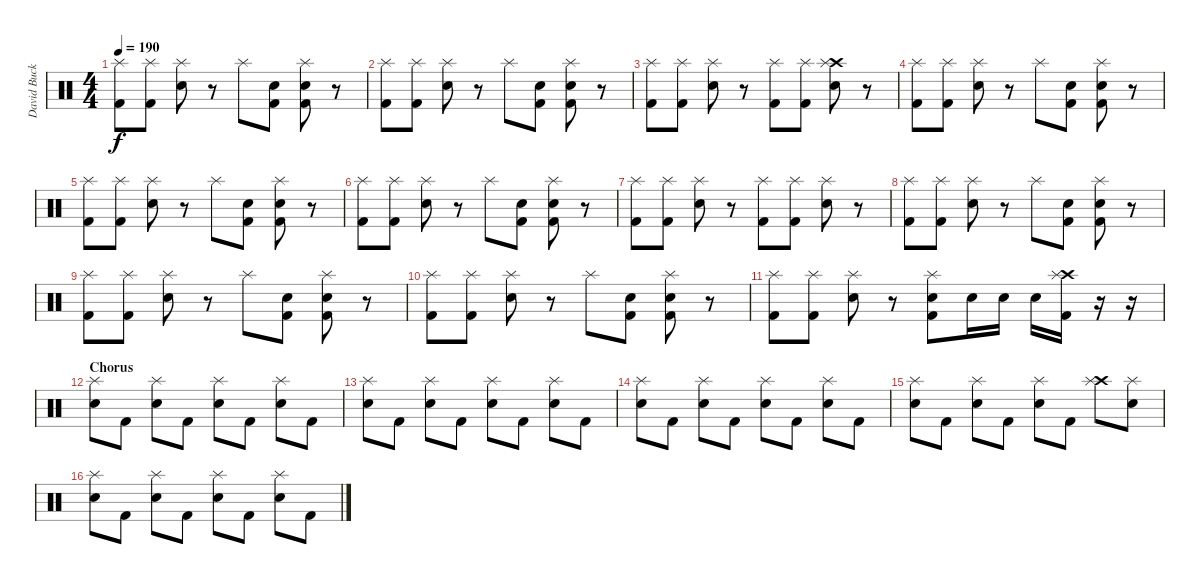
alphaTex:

\track ("David Buckner" "David Buck") {instrument percussion}
\staff {score}
\articulation defaults
\ts (4 4)
\tempo 190
\clef neutral
\ks c
("Splash (hit)" "Kick (hit) 2").8{dy f} ("Splash (hit)" "Kick (hit) 2").8 ("Splash (hit)" "Snare (hit) 2").8 r.8 "Splash (hit)".8 ("Snare (hit) 2" "Kick (hit) 2").8 ("Splash (hit)" "Snare (hit) 2" "Kick (hit) 2").8 r.8 |
("Splash (hit)" "Kick (hit) 2").8 ("Splash (hit)" "Kick (hit) 2").8 ("Splash (hit)" "Snare (hit) 2").8 r.8 "Splash (hit)".8 ("Snare (hit) 2" "Kick (hit) 2").8 ("Splash (hit)" "Snare (hit) 2" "Kick (hit) 2").8 r.8 |
("Splash (hit)" "Kick (hit) 2").8 ("Splash (hit)" "Kick (hit) 2").8 ("Splash (hit)" "Snare (hit) 2").8 r.8 ("Splash (hit)" "Kick (hit) 2").8 ("Splash (hit)" "Kick (hit) 2").8 ("Crash high (hit)" "Splash (hit)" "Snare (hit) 2").8 r.8 |
("Splash (hit)" "Kick (hit) 2").8 ("Splash (hit)" "Kick (hit) 2").8 ("Splash (hit)" "Snare (hit) 2").8 r.8 "Splash (hit)".8 ("Snare (hit) 2" "Kick (hit) 2").8 ("Splash (hit)" "Snare (hit) 2" "Kick (hit) 2").8 r.8 |
("Splash (hit)" "Kick (hit) 2").8 ("Splash (hit)" "Kick (hit) 2").8 ("Splash (hit)" "Snare (hit) 2").8 r.8 "Splash (hit)".8 ("Snare (hit) 2" "Kick (hit) 2").8 ("Splash (hit)" "Snare (hit) 2" "Kick (hit) 2").8 r.8 |
("Splash (hit)" "Kick (hit) 2").8 ("Splash (hit)" "Kick (hit) 2").8 ("Splash (hit)" "Snare (hit) 2").8 r.8 "Splash (hit)".8 ("Snare (hit) 2" "Kick (hit) 2").8 ("Splash (hit)" "Snare (hit) 2" "Kick (hit) 2").8 r.8 |
("Splash (hit)" "Kick (hit) 2").8 ("Splash (hit)" "Kick (hit) 2").8 ("Splash (hit)" "Snare (hit) 2").8 r.8 ("Splash (hit)" "Kick (hit) 2").8 ("Splash (hit)" "Kick (hit) 2").8 ("Splash (hit)" "Snare (hit) 2").8 r.8 |
("Splash (hit)" "Kick (hit) 2").8 ("Splash (hit)" "Kick (hit) 2").8 ("Splash (hit)" "Snare (hit) 2").8 r.8 "Splash (hit)".8 ("Snare (hit) 2" "Kick (hit) 2").8 ("Splash (hit)" "Snare (hit) 2" "Kick (hit) 2").8 r.8 |
("Splash (hit)" "Kick (hit) 2").8 ("Splash (hit)" "Kick (hit) 2").8 ("Splash (hit)" "Snare (hit) 2").8 r.8 "Splash (hit)".8 ("Snare (hit) 2" "Kick (hit) 2").8 ("Splash (hit)" "Snare (hit) 2" "Kick (hit) 2").8 r.8 |
("Splash (hit)" "Kick (hit) 2").8 ("Splash (hit)" "Kick (hit) 2").8 ("Splash (hit)" "Snare (hit) 2").8 r.8 "Splash (hit)".8 ("Snare (hit) 2" "Kick (hit) 2").8 ("Splash (hit)" "Snare (hit) 2" "Kick (hit) 2").8 r.8 |
("Splash (hit)" "Kick (hit) 2").8 ("Splash (hit)" "Kick (hit) 2").8 ("Splash (hit)" "Snare (hit) 2").8 r.8 ("Splash (hit)" "Snare (hit) 2" "Kick (hit) 2").8 "Snare (hit) 2".16 "Snare (hit) 2".16 "Snare (hit) 2".16 ("Crash high (hit)" "Splash (hit)" "Kick (hit) 2").16 r.16 r.16 |
\section ("" "Chorus")
("Splash (hit)" "Snare (hit) 2").8 "Kick (hit) 2".8 ("Splash (hit)" "Snare (hit) 2").8 "Kick (hit) 2".8 ("Splash (hit)" "Snare (hit) 2").8 "Kick (hit) 2".8 ("Splash (hit)" "Snare (hit) 2").8 "Kick (hit) 2".8 |
("Splash (hit)" "Snare (hit) 2").8 "Kick (hit) 2".8 ("Splash (hit)" "Snare (hit) 2").8 "Kick (hit) 2".8 ("Splash (hit)" "Snare (hit) 2").8 "Kick (hit) 2".8 ("Splash (hit)" "Snare (hit) 2").8 "Kick (hit) 2".8 |
("Splash (hit)" "Snare (hit) 2").8 "Kick (hit) 2".8 ("Splash (hit)" "Snare (hit) 2").8 "Kick (hit) 2".8 ("Splash (hit)" "Snare (hit) 2").8 "Kick (hit) 2".8 ("Splash (hit)" "Snare (hit) 2").8 "Kick (hit) 2".8 |
("Splash (hit)" "Snare (hit) 2").8 "Kick (hit) 2".8 ("Splash (hit)" "Snare (hit) 2").8 "Kick (hit) 2".8 ("Splash (hit)" "Snare (hit) 2").8 "Kick (hit) 2".8 ("Crash high (hit)" "Splash (hit)").8 ("Splash (hit)" "Snare (hit) 2").8 |
("Splash (hit)" "Snare (hit) 2").8 "Kick (hit) 2".8 ("Splash (hit)" "Snare (hit) 2").8 "Kick (hit) 2".8 ("Splash (hit)" "Snare (hit) 2").8 "Kick (hit) 2".8 ("Splash (hit)" "Snare (hit) 2").8 "Kick (hit) 2".8
